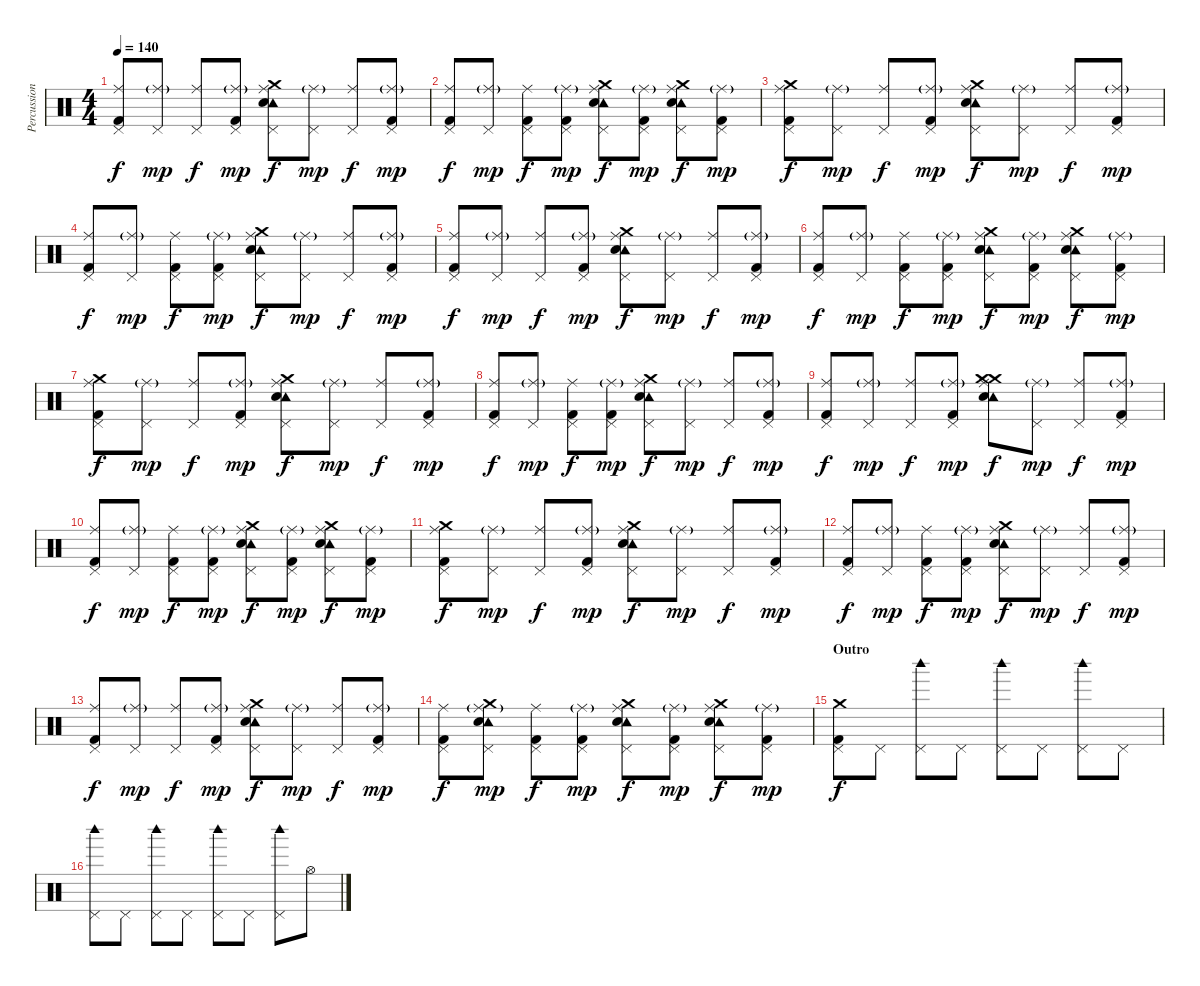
\track ("Percussion" "Percussion") {instrument percussion}
\staff {score}
\articulation defaults
\ts (4 4)
\tempo 140
\clef neutral
\ks c
("Ride (middle)" "Pedal Hi-Hat (hit)" "Kick (hit) 2").8{dy f} ("Ride (middle)"{g} "Pedal Hi-Hat (hit)").8{dy mp} ("Ride (middle)" "Pedal Hi-Hat (hit)").8{dy f} ("Ride (middle)"{g} "Pedal Hi-Hat (hit)" "Kick (hit) 2").8{dy mp} ("Ride (middle)" "Pedal Hi-Hat (hit)" "Tambourine (hit)" "Electric Snare (hit)" "Crash medium (hit)").8{dy f} ("Ride (middle)"{g} "Pedal Hi-Hat (hit)").8{dy mp} ("Ride (middle)" "Pedal Hi-Hat (hit)").8{dy f} ("Ride (middle)"{g} "Pedal Hi-Hat (hit)" "Kick (hit) 2").8{dy mp} |
("Ride (middle)" "Pedal Hi-Hat (hit)" "Kick (hit) 2").8{dy f} ("Ride (middle)"{g} "Pedal Hi-Hat (hit)").8{dy mp} ("Ride (middle)" "Pedal Hi-Hat (hit)" "Kick (hit) 2").8{dy f} ("Ride (middle)"{g} "Pedal Hi-Hat (hit)" "Kick (hit) 2").8{dy mp} ("Ride (middle)" "Pedal Hi-Hat (hit)" "Tambourine (hit)" "Electric Snare (hit)" "Crash medium (hit)").8{dy f} ("Ride (middle)"{g} "Pedal Hi-Hat (hit)" "Kick (hit) 2").8{dy mp} ("Ride (middle)" "Pedal Hi-Hat (hit)" "Tambourine (hit)" "Electric Snare (hit)" "Crash medium (hit)").8{dy f} ("Ride (middle)"{g} "Pedal Hi-Hat (hit)" "Kick (hit) 2").8{dy mp} |
("Ride (middle)" "Pedal Hi-Hat (hit)" "Crash medium (hit)" "Kick (hit) 2").8{dy f} ("Ride (middle)"{g} "Pedal Hi-Hat (hit)").8{dy mp} ("Ride (middle)" "Pedal Hi-Hat (hit)").8{dy f} ("Ride (middle)"{g} "Pedal Hi-Hat (hit)" "Kick (hit) 2").8{dy mp} ("Ride (middle)" "Pedal Hi-Hat (hit)" "Tambourine (hit)" "Electric Snare (hit)" "Crash medium (hit)").8{dy f} ("Ride (middle)"{g} "Pedal Hi-Hat (hit)").8{dy mp} ("Ride (middle)" "Pedal Hi-Hat (hit)").8{dy f} ("Ride (middle)"{g} "Pedal Hi-Hat (hit)" "Kick (hit) 2").8{dy mp} |
("Ride (middle)" "Pedal Hi-Hat (hit)" "Kick (hit) 2").8{dy f} ("Ride (middle)"{g} "Pedal Hi-Hat (hit)").8{dy mp} ("Ride (middle)" "Pedal Hi-Hat (hit)" "Kick (hit) 2").8{dy f} ("Ride (middle)"{g} "Pedal Hi-Hat (hit)" "Kick (hit) 2").8{dy mp} ("Ride (middle)" "Pedal Hi-Hat (hit)" "Tambourine (hit)" "Electric Snare (hit)" "Crash medium (hit)").8{dy f} ("Ride (middle)"{g} "Pedal Hi-Hat (hit)").8{dy mp} ("Ride (middle)" "Pedal Hi-Hat (hit)").8{dy f} ("Ride (middle)"{g} "Pedal Hi-Hat (hit)" "Kick (hit) 2").8{dy mp} |
("Ride (middle)" "Pedal Hi-Hat (hit)" "Kick (hit) 2").8{dy f} ("Ride (middle)"{g} "Pedal Hi-Hat (hit)").8{dy mp} ("Ride (middle)" "Pedal Hi-Hat (hit)").8{dy f} ("Ride (middle)"{g} "Pedal Hi-Hat (hit)" "Kick (hit) 2").8{dy mp} ("Ride (middle)" "Pedal Hi-Hat (hit)" "Tambourine (hit)" "Electric Snare (hit)" "Crash medium (hit)").8{dy f} ("Ride (middle)"{g} "Pedal Hi-Hat (hit)").8{dy mp} ("Ride (middle)" "Pedal Hi-Hat (hit)").8{dy f} ("Ride (middle)"{g} "Pedal Hi-Hat (hit)" "Kick (hit) 2").8{dy mp} |
("Ride (middle)" "Pedal Hi-Hat (hit)" "Kick (hit) 2").8{dy f} ("Ride (middle)"{g} "Pedal Hi-Hat (hit)").8{dy mp} ("Ride (middle)" "Pedal Hi-Hat (hit)" "Kick (hit) 2").8{dy f} ("Ride (middle)"{g} "Pedal Hi-Hat (hit)" "Kick (hit) 2").8{dy mp} ("Ride (middle)" "Pedal Hi-Hat (hit)" "Tambourine (hit)" "Electric Snare (hit)" "Crash medium (hit)").8{dy f} ("Ride (middle)"{g} "Pedal Hi-Hat (hit)" "Kick (hit) 2").8{dy mp} ("Ride (middle)" "Pedal Hi-Hat (hit)" "Tambourine (hit)" "Electric Snare (hit)" "Crash medium (hit)").8{dy f} ("Ride (middle)"{g} "Pedal Hi-Hat (hit)" "Kick (hit) 2").8{dy mp} |
("Ride (middle)" "Pedal Hi-Hat (hit)" "Crash medium (hit)" "Kick (hit) 2").8{dy f} ("Ride (middle)"{g} "Pedal Hi-Hat (hit)").8{dy mp} ("Ride (middle)" "Pedal Hi-Hat (hit)").8{dy f} ("Ride (middle)"{g} "Pedal Hi-Hat (hit)" "Kick (hit) 2").8{dy mp} ("Ride (middle)" "Pedal Hi-Hat (hit)" "Tambourine (hit)" "Electric Snare (hit)" "Crash medium (hit)").8{dy f} ("Ride (middle)"{g} "Pedal Hi-Hat (hit)").8{dy mp} ("Ride (middle)" "Pedal Hi-Hat (hit)").8{dy f} ("Ride (middle)"{g} "Pedal Hi-Hat (hit)" "Kick (hit) 2").8{dy mp} |
("Ride (middle)" "Pedal Hi-Hat (hit)" "Kick (hit) 2").8{dy f} ("Ride (middle)"{g} "Pedal Hi-Hat (hit)").8{dy mp} ("Ride (middle)" "Pedal Hi-Hat (hit)" "Kick (hit) 2").8{dy f} ("Ride (middle)"{g} "Pedal Hi-Hat (hit)" "Kick (hit) 2").8{dy mp} ("Ride (middle)" "Pedal Hi-Hat (hit)" "Tambourine (hit)" "Electric Snare (hit)" "Crash medium (hit)").8{dy f} ("Ride (middle)"{g} "Pedal Hi-Hat (hit)").8{dy mp} ("Ride (middle)" "Pedal Hi-Hat (hit)").8{dy f} ("Ride (middle)"{g} "Pedal Hi-Hat (hit)" "Kick (hit) 2").8{dy mp} |
("Ride (middle)" "Pedal Hi-Hat (hit)" "Kick (hit) 2").8{dy f} ("Ride (middle)"{g} "Pedal Hi-Hat (hit)").8{dy mp} ("Ride (middle)" "Pedal Hi-Hat (hit)").8{dy f} ("Ride (middle)"{g} "Pedal Hi-Hat (hit)" "Kick (hit) 2").8{dy mp} ("Ride (middle)" "Crash medium (hit)" "Tambourine (hit)" "Electric Snare (hit)" "Crash medium (hit)").8{dy f} ("Ride (middle)"{g} "Pedal Hi-Hat (hit)").8{dy mp} ("Ride (middle)" "Pedal Hi-Hat (hit)").8{dy f} ("Ride (middle)"{g} "Pedal Hi-Hat (hit)" "Kick (hit) 2").8{dy mp} |
("Ride (middle)" "Pedal Hi-Hat (hit)" "Kick (hit) 2").8{dy f} ("Ride (middle)"{g} "Pedal Hi-Hat (hit)").8{dy mp} ("Ride (middle)" "Pedal Hi-Hat (hit)" "Kick (hit) 2").8{dy f} ("Ride (middle)"{g} "Pedal Hi-Hat (hit)" "Kick (hit) 2").8{dy mp} ("Ride (middle)" "Pedal Hi-Hat (hit)" "Tambourine (hit)" "Electric Snare (hit)" "Crash medium (hit)").8{dy f} ("Ride (middle)"{g} "Pedal Hi-Hat (hit)" "Kick (hit) 2").8{dy mp} ("Ride (middle)" "Pedal Hi-Hat (hit)" "Tambourine (hit)" "Electric Snare (hit)" "Crash medium (hit)").8{dy f} ("Ride (middle)"{g} "Pedal Hi-Hat (hit)" "Kick (hit) 2").8{dy mp} |
("Ride (middle)" "Pedal Hi-Hat (hit)" "Crash medium (hit)" "Kick (hit) 2").8{dy f} ("Ride (middle)"{g} "Pedal Hi-Hat (hit)").8{dy mp} ("Ride (middle)" "Pedal Hi-Hat (hit)").8{dy f} ("Ride (middle)"{g} "Pedal Hi-Hat (hit)" "Kick (hit) 2").8{dy mp} ("Ride (middle)" "Pedal Hi-Hat (hit)" "Tambourine (hit)" "Electric Snare (hit)" "Crash medium (hit)").8{dy f} ("Ride (middle)"{g} "Pedal Hi-Hat (hit)").8{dy mp} ("Ride (middle)" "Pedal Hi-Hat (hit)").8{dy f} ("Ride (middle)"{g} "Pedal Hi-Hat (hit)" "Kick (hit) 2").8{dy mp} |
("Ride (middle)" "Pedal Hi-Hat (hit)" "Kick (hit) 2").8{dy f} ("Ride (middle)"{g} "Pedal Hi-Hat (hit)").8{dy mp} ("Ride (middle)" "Pedal Hi-Hat (hit)" "Kick (hit) 2").8{dy f} ("Ride (middle)"{g} "Pedal Hi-Hat (hit)" "Kick (hit) 2").8{dy mp} ("Ride (middle)" "Pedal Hi-Hat (hit)" "Tambourine (hit)" "Electric Snare (hit)" "Crash medium (hit)").8{dy f} ("Ride (middle)"{g} "Pedal Hi-Hat (hit)").8{dy mp} ("Ride (middle)" "Pedal Hi-Hat (hit)").8{dy f} ("Ride (middle)"{g} "Pedal Hi-Hat (hit)" "Kick (hit) 2").8{dy mp} |
("Ride (middle)" "Pedal Hi-Hat (hit)" "Kick (hit) 2").8{dy f} ("Ride (middle)"{g} "Pedal Hi-Hat (hit)").8{dy mp} ("Ride (middle)" "Pedal Hi-Hat (hit)").8{dy f} ("Ride (middle)"{g} "Pedal Hi-Hat (hit)" "Kick (hit) 2").8{dy mp} ("Ride (middle)" "Pedal Hi-Hat (hit)" "Tambourine (hit)" "Electric Snare (hit)" "Crash medium (hit)").8{dy f} ("Ride (middle)"{g} "Pedal Hi-Hat (hit)").8{dy mp} ("Ride (middle)" "Pedal Hi-Hat (hit)").8{dy f} ("Ride (middle)"{g} "Pedal Hi-Hat (hit)" "Kick (hit) 2").8{dy mp} |
("Ride (middle)" "Pedal Hi-Hat (hit)" "Kick (hit) 2").8{dy f} ("Ride (middle)"{g} "Pedal Hi-Hat (hit)" "Tambourine (hit)" "Electric Snare (hit)" "Crash medium (hit)").8{dy mp} ("Ride (middle)" "Pedal Hi-Hat (hit)" "Kick (hit) 2").8{dy f} ("Ride (middle)"{g} "Pedal Hi-Hat (hit)" "Kick (hit) 2").8{dy mp} ("Ride (middle)" "Pedal Hi-Hat (hit)" "Tambourine (hit)" "Electric Snare (hit)" "Crash medium (hit)").8{dy f} ("Ride (middle)"{g} "Pedal Hi-Hat (hit)" "Kick (hit) 2").8{dy mp} ("Ride (middle)" "Pedal Hi-Hat (hit)" "Tambourine (hit)" "Electric Snare (hit)" "Crash medium (hit)").8{dy f} ("Ride (middle)"{g} "Pedal Hi-Hat (hit)" "Kick (hit) 2").8{dy mp} |
\section ("" "Outro")
("Pedal Hi-Hat (hit)" "Crash medium (hit)" "Kick (hit) 2").8{dy f} "Pedal Hi-Hat (hit)".8 ("Pedal Hi-Hat (hit)" "Woodblock high (hit)").8 "Pedal Hi-Hat (hit)".8 ("Pedal Hi-Hat (hit)" "Woodblock high (hit)").8 "Pedal Hi-Hat (hit)".8 ("Pedal Hi-Hat (hit)" "Woodblock high (hit)").8 "Pedal Hi-Hat (hit)".8 |
("Pedal Hi-Hat (hit)" "Woodblock high (hit)").8 "Pedal Hi-Hat (hit)".8 ("Pedal Hi-Hat (hit)" "Woodblock high (hit)").8 "Pedal Hi-Hat (hit)".8 ("Pedal Hi-Hat (hit)" "Woodblock high (hit)").8 "Pedal Hi-Hat (hit)".8 ("Pedal Hi-Hat (hit)" "Woodblock high (hit)").8 "Hi-Hat (open)".8
